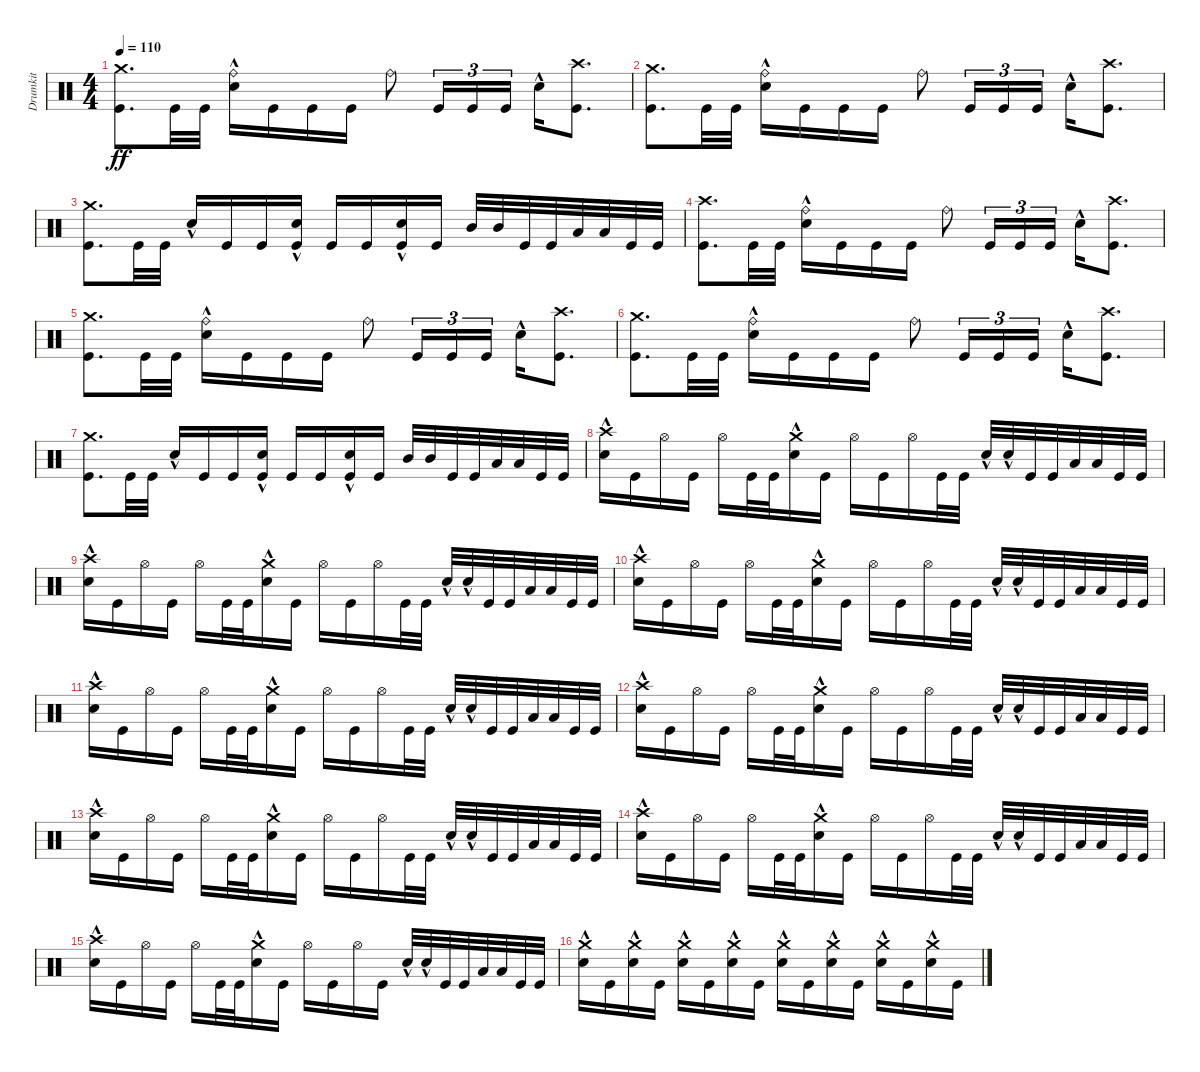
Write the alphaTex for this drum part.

\track ("Drumkit" "Drumkit") {instrument percussion}
\staff {score}
\articulation defaults
\ts (4 4)
\tempo 110
\clef neutral
\ks c
("Kick (hit)" "Crash medium (hit)").8{d dy ff} "Kick (hit)".32 "Kick (hit)".32 ("Snare (hit) 2"{hac} "Ride (bell)").16 "Kick (hit)".16 "Kick (hit)".16 "Kick (hit)".16 "Ride (bell)".8 "Kick (hit)".16{tu (3 2)} "Kick (hit)".16{tu (3 2)} "Kick (hit)".16{tu (3 2)} "Snare (hit) 2"{hac}.16 ("Kick (hit)" "Crash high (hit)").8{d} |
("Kick (hit)" "Crash medium (hit)").8{d} "Kick (hit)".32 "Kick (hit)".32 ("Snare (hit) 2"{hac} "Ride (bell)").16 "Kick (hit)".16 "Kick (hit)".16 "Kick (hit)".16 "Ride (bell)".8 "Kick (hit)".16{tu (3 2)} "Kick (hit)".16{tu (3 2)} "Kick (hit)".16{tu (3 2)} "Snare (hit) 2"{hac}.16 ("Kick (hit)" "Crash high (hit)").8{d} |
("Kick (hit)" "Crash medium (hit)").8{d} "Kick (hit)".32 "Kick (hit)".32 "Snare (hit) 2"{hac}.16 "Kick (hit)".16 "Kick (hit)".16 ("Kick (hit)" "Snare (hit) 2"{hac}).16 "Kick (hit)".16 "Kick (hit)".16 ("Kick (hit)" "Snare (hit) 2"{hac}).16 "Kick (hit)".16 "Mid Tom (hit)".32 "Mid Tom (hit)".32 "Kick (hit)".32 "Kick (hit)".32 "Low Tom (hit)".32 "Low Tom (hit)".32 "Kick (hit)".32 "Kick (hit)".32 |
("Kick (hit)" "Crash high (hit)").8{d} "Kick (hit)".32 "Kick (hit)".32 ("Snare (hit) 2"{hac} "Ride (bell)").16 "Kick (hit)".16 "Kick (hit)".16 "Kick (hit)".16 "Ride (bell)".8 "Kick (hit)".16{tu (3 2)} "Kick (hit)".16{tu (3 2)} "Kick (hit)".16{tu (3 2)} "Snare (hit) 2"{hac}.16 ("Kick (hit)" "Crash high (hit)").8{d} |
("Kick (hit)" "Crash medium (hit)").8{d} "Kick (hit)".32 "Kick (hit)".32 ("Snare (hit) 2"{hac} "Ride (bell)").16 "Kick (hit)".16 "Kick (hit)".16 "Kick (hit)".16 "Ride (bell)".8 "Kick (hit)".16{tu (3 2)} "Kick (hit)".16{tu (3 2)} "Kick (hit)".16{tu (3 2)} "Snare (hit) 2"{hac}.16 ("Kick (hit)" "Crash high (hit)").8{d} |
("Kick (hit)" "Crash medium (hit)").8{d} "Kick (hit)".32 "Kick (hit)".32 ("Snare (hit) 2"{hac} "Ride (bell)").16 "Kick (hit)".16 "Kick (hit)".16 "Kick (hit)".16 "Ride (bell)".8 "Kick (hit)".16{tu (3 2)} "Kick (hit)".16{tu (3 2)} "Kick (hit)".16{tu (3 2)} "Snare (hit) 2"{hac}.16 ("Kick (hit)" "Crash high (hit)").8{d} |
("Kick (hit)" "Crash medium (hit)").8{d} "Kick (hit)".32 "Kick (hit)".32 "Snare (hit) 2"{hac}.16 "Kick (hit)".16 "Kick (hit)".16 ("Kick (hit)" "Snare (hit) 2"{hac}).16 "Kick (hit)".16 "Kick (hit)".16 ("Kick (hit)" "Snare (hit) 2"{hac}).16 "Kick (hit)".16 "Mid Tom (hit)".32 "Mid Tom (hit)".32 "Kick (hit)".32 "Kick (hit)".32 "Low Tom (hit)".32 "Low Tom (hit)".32 "Kick (hit)".32 "Kick (hit)".32 |
("Snare (hit) 2"{hac} "Crash high (hit)").16 "Kick (hit)".16 "Hi-Hat (open)".16 "Kick (hit)".16 "Hi-Hat (open)".16 "Kick (hit)".32 "Kick (hit)".32 ("Snare (hit) 2"{hac} "Crash medium (hit)").16 "Kick (hit)".16 "Hi-Hat (open)".16 "Kick (hit)".16 "Hi-Hat (open)".16 "Kick (hit)".32 "Kick (hit)".32 "Snare (hit) 2"{hac}.32 "Snare (hit) 2"{hac}.32 "Kick (hit)".32 "Kick (hit)".32 "Low Tom (hit)".32 "Low Tom (hit)".32 "Kick (hit)".32 "Kick (hit)".32 |
("Snare (hit) 2"{hac} "Crash high (hit)").16 "Kick (hit)".16 "Hi-Hat (open)".16 "Kick (hit)".16 "Hi-Hat (open)".16 "Kick (hit)".32 "Kick (hit)".32 ("Snare (hit) 2"{hac} "Crash medium (hit)").16 "Kick (hit)".16 "Hi-Hat (open)".16 "Kick (hit)".16 "Hi-Hat (open)".16 "Kick (hit)".32 "Kick (hit)".32 "Snare (hit) 2"{hac}.32 "Snare (hit) 2"{hac}.32 "Kick (hit)".32 "Kick (hit)".32 "Low Tom (hit)".32 "Low Tom (hit)".32 "Kick (hit)".32 "Kick (hit)".32 |
("Snare (hit) 2"{hac} "Crash high (hit)").16 "Kick (hit)".16 "Hi-Hat (open)".16 "Kick (hit)".16 "Hi-Hat (open)".16 "Kick (hit)".32 "Kick (hit)".32 ("Snare (hit) 2"{hac} "Crash medium (hit)").16 "Kick (hit)".16 "Hi-Hat (open)".16 "Kick (hit)".16 "Hi-Hat (open)".16 "Kick (hit)".32 "Kick (hit)".32 "Snare (hit) 2"{hac}.32 "Snare (hit) 2"{hac}.32 "Kick (hit)".32 "Kick (hit)".32 "Low Tom (hit)".32 "Low Tom (hit)".32 "Kick (hit)".32 "Kick (hit)".32 |
("Snare (hit) 2"{hac} "Crash high (hit)").16 "Kick (hit)".16 "Hi-Hat (open)".16 "Kick (hit)".16 "Hi-Hat (open)".16 "Kick (hit)".32 "Kick (hit)".32 ("Snare (hit) 2"{hac} "Crash medium (hit)").16 "Kick (hit)".16 "Hi-Hat (open)".16 "Kick (hit)".16 "Hi-Hat (open)".16 "Kick (hit)".32 "Kick (hit)".32 "Snare (hit) 2"{hac}.32 "Snare (hit) 2"{hac}.32 "Kick (hit)".32 "Kick (hit)".32 "Low Tom (hit)".32 "Low Tom (hit)".32 "Kick (hit)".32 "Kick (hit)".32 |
("Snare (hit) 2"{hac} "Crash high (hit)").16 "Kick (hit)".16 "Hi-Hat (open)".16 "Kick (hit)".16 "Hi-Hat (open)".16 "Kick (hit)".32 "Kick (hit)".32 ("Snare (hit) 2"{hac} "Crash medium (hit)").16 "Kick (hit)".16 "Hi-Hat (open)".16 "Kick (hit)".16 "Hi-Hat (open)".16 "Kick (hit)".32 "Kick (hit)".32 "Snare (hit) 2"{hac}.32 "Snare (hit) 2"{hac}.32 "Kick (hit)".32 "Kick (hit)".32 "Low Tom (hit)".32 "Low Tom (hit)".32 "Kick (hit)".32 "Kick (hit)".32 |
("Snare (hit) 2"{hac} "Crash high (hit)").16 "Kick (hit)".16 "Hi-Hat (open)".16 "Kick (hit)".16 "Hi-Hat (open)".16 "Kick (hit)".32 "Kick (hit)".32 ("Snare (hit) 2"{hac} "Crash medium (hit)").16 "Kick (hit)".16 "Hi-Hat (open)".16 "Kick (hit)".16 "Hi-Hat (open)".16 "Kick (hit)".32 "Kick (hit)".32 "Snare (hit) 2"{hac}.32 "Snare (hit) 2"{hac}.32 "Kick (hit)".32 "Kick (hit)".32 "Low Tom (hit)".32 "Low Tom (hit)".32 "Kick (hit)".32 "Kick (hit)".32 |
("Snare (hit) 2"{hac} "Crash high (hit)").16 "Kick (hit)".16 "Hi-Hat (open)".16 "Kick (hit)".16 "Hi-Hat (open)".16 "Kick (hit)".32 "Kick (hit)".32 ("Snare (hit) 2"{hac} "Crash medium (hit)").16 "Kick (hit)".16 "Hi-Hat (open)".16 "Kick (hit)".16 "Hi-Hat (open)".16 "Kick (hit)".32 "Kick (hit)".32 "Snare (hit) 2"{hac}.32 "Snare (hit) 2"{hac}.32 "Kick (hit)".32 "Kick (hit)".32 "Low Tom (hit)".32 "Low Tom (hit)".32 "Kick (hit)".32 "Kick (hit)".32 |
("Snare (hit) 2"{hac} "Crash high (hit)").16 "Kick (hit)".16 "Hi-Hat (open)".16 "Kick (hit)".16 "Hi-Hat (open)".16 "Kick (hit)".32 "Kick (hit)".32 ("Snare (hit) 2"{hac} "Crash medium (hit)").16 "Kick (hit)".16 "Hi-Hat (open)".16 "Kick (hit)".16 "Hi-Hat (open)".16 "Kick (hit)".16 "Snare (hit) 2"{hac}.32 "Snare (hit) 2"{hac}.32 "Kick (hit)".32 "Kick (hit)".32 "Low Tom (hit)".32 "Low Tom (hit)".32 "Kick (hit)".32 "Kick (hit)".32 |
("Snare (hit) 2"{hac} "Crash medium (hit)").16 "Kick (hit)".16 ("Snare (hit) 2"{hac} "Crash medium (hit)").16 "Kick (hit)".16 ("Snare (hit) 2"{hac} "Crash medium (hit)").16 "Kick (hit)".16 ("Snare (hit) 2"{hac} "Crash medium (hit)").16 "Kick (hit)".16 ("Snare (hit) 2"{hac} "Crash medium (hit)").16 "Kick (hit)".16 ("Snare (hit) 2"{hac} "Crash medium (hit)").16 "Kick (hit)".16 ("Snare (hit) 2"{hac} "Crash medium (hit)").16 "Kick (hit)".16 ("Snare (hit) 2"{hac} "Crash medium (hit)").16 "Kick (hit)".16
